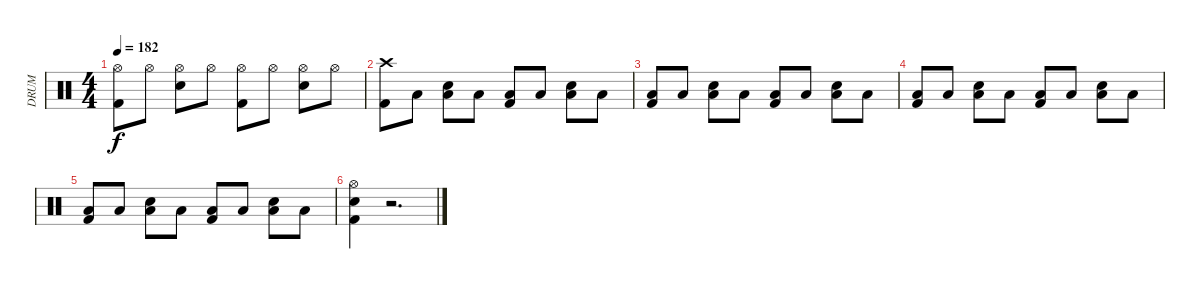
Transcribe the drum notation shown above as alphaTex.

\track ("DRUM" "DRUM") {instrument percussion}
\staff {score}
\articulation defaults
\ts (4 4)
\tempo 182
\clef neutral
\ks c
("Hi-Hat (open)" "Kick (hit) 2").8{dy f} "Hi-Hat (open)".8{volume 9} ("Hi-Hat (open)" "Snare (hit) 2").8 "Hi-Hat (open)".8{volume 9} ("Hi-Hat (open)" "Kick (hit) 2").8 "Hi-Hat (open)".8{volume 9} ("Hi-Hat (open)" "Snare (hit) 2").8 "Hi-Hat (open)".8{volume 9} |
("Crash high (hit)" "Kick (hit) 2").8 "Low Floor Tom (hit)".8{volume 9} ("Low Floor Tom (hit)" "Snare (hit) 2").8 "Low Floor Tom (hit)".8{volume 9} ("Low Floor Tom (hit)" "Kick (hit) 2").8 "Low Floor Tom (hit)".8{volume 9} ("Low Floor Tom (hit)" "Snare (hit) 2").8 "Low Floor Tom (hit)".8 |
("Low Floor Tom (hit)" "Kick (hit) 2").8 "Low Floor Tom (hit)".8{volume 9} ("Low Floor Tom (hit)" "Snare (hit) 2").8 "Low Floor Tom (hit)".8{volume 9} ("Low Floor Tom (hit)" "Kick (hit) 2").8 "Low Floor Tom (hit)".8{volume 9} ("Low Floor Tom (hit)" "Snare (hit) 2").8 "Low Floor Tom (hit)".8 |
("Low Floor Tom (hit)" "Kick (hit) 2").8 "Low Floor Tom (hit)".8{volume 9} ("Low Floor Tom (hit)" "Snare (hit) 2").8 "Low Floor Tom (hit)".8{volume 9} ("Low Floor Tom (hit)" "Kick (hit) 2").8 "Low Floor Tom (hit)".8{volume 9} ("Low Floor Tom (hit)" "Snare (hit) 2").8 "Low Floor Tom (hit)".8 |
("Low Floor Tom (hit)" "Kick (hit) 2").8 "Low Floor Tom (hit)".8{volume 9} ("Low Floor Tom (hit)" "Snare (hit) 2").8 "Low Floor Tom (hit)".8{volume 9} ("Low Floor Tom (hit)" "Kick (hit) 2").8 "Low Floor Tom (hit)".8{volume 9} ("Low Floor Tom (hit)" "Snare (hit) 2").8 "Low Floor Tom (hit)".8 |
("Hi-Hat (open)" "Kick (hit) 2" "Snare (hit) 2").4 r.2{d}
